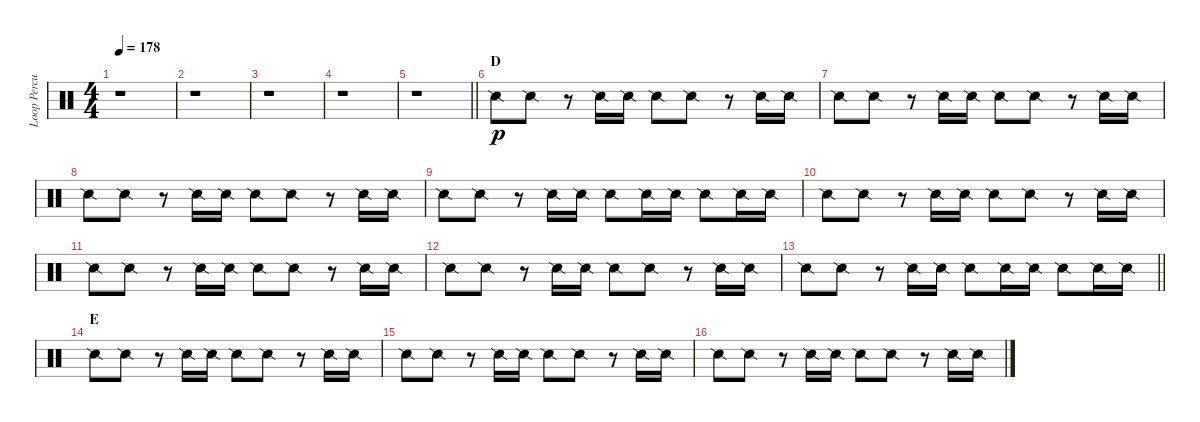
\track ("Loop Percussion" "Loop Percu") {instrument percussion}
\staff {score}
\articulation defaults
\ts (4 4)
\tempo 178
\clef neutral
\ks c
r.1{dy p} |
r.1 |
r.1 |
r.1 |
\barLineRight lightlight
r.1 |
\section ("" "D")
"Snare (side stick) 2".8 "Snare (side stick) 2".8 r.8 "Snare (side stick) 2".16 "Snare (side stick) 2".16 "Snare (side stick) 2".8 "Snare (side stick) 2".8 r.8 "Snare (side stick) 2".16 "Snare (side stick) 2".16 |
"Snare (side stick) 2".8 "Snare (side stick) 2".8 r.8 "Snare (side stick) 2".16 "Snare (side stick) 2".16 "Snare (side stick) 2".8 "Snare (side stick) 2".8 r.8 "Snare (side stick) 2".16 "Snare (side stick) 2".16 |
"Snare (side stick) 2".8 "Snare (side stick) 2".8 r.8 "Snare (side stick) 2".16 "Snare (side stick) 2".16 "Snare (side stick) 2".8 "Snare (side stick) 2".8 r.8 "Snare (side stick) 2".16 "Snare (side stick) 2".16 |
"Snare (side stick) 2".8 "Snare (side stick) 2".8 r.8 "Snare (side stick) 2".16 "Snare (side stick) 2".16 "Snare (side stick) 2".8 "Snare (side stick) 2".16 "Snare (side stick) 2".16 "Snare (side stick) 2".8 "Snare (side stick) 2".16 "Snare (side stick) 2".16 |
"Snare (side stick) 2".8 "Snare (side stick) 2".8 r.8 "Snare (side stick) 2".16 "Snare (side stick) 2".16 "Snare (side stick) 2".8 "Snare (side stick) 2".8 r.8 "Snare (side stick) 2".16 "Snare (side stick) 2".16 |
"Snare (side stick) 2".8 "Snare (side stick) 2".8 r.8 "Snare (side stick) 2".16 "Snare (side stick) 2".16 "Snare (side stick) 2".8 "Snare (side stick) 2".8 r.8 "Snare (side stick) 2".16 "Snare (side stick) 2".16 |
"Snare (side stick) 2".8 "Snare (side stick) 2".8 r.8 "Snare (side stick) 2".16 "Snare (side stick) 2".16 "Snare (side stick) 2".8 "Snare (side stick) 2".8 r.8 "Snare (side stick) 2".16 "Snare (side stick) 2".16 |
\barLineRight lightlight "Snare (side stick) 2".8 "Snare (side stick) 2".8
r.8 "Snare (side stick) 2".16 "Snare (side stick) 2".16 "Snare (side stick) 2".8 "Snare (side stick) 2".16 "Snare (side stick) 2".16 "Snare (side stick) 2".8 "Snare (side stick) 2".16 "Snare (side stick) 2".16 |
\section ("" "E")
"Snare (side stick) 2".8 "Snare (side stick) 2".8 r.8 "Snare (side stick) 2".16 "Snare (side stick) 2".16 "Snare (side stick) 2".8 "Snare (side stick) 2".8 r.8 "Snare (side stick) 2".16 "Snare (side stick) 2".16 |
"Snare (side stick) 2".8 "Snare (side stick) 2".8 r.8 "Snare (side stick) 2".16 "Snare (side stick) 2".16 "Snare (side stick) 2".8 "Snare (side stick) 2".8 r.8 "Snare (side stick) 2".16 "Snare (side stick) 2".16 |
"Snare (side stick) 2".8 "Snare (side stick) 2".8 r.8 "Snare (side stick) 2".16 "Snare (side stick) 2".16 "Snare (side stick) 2".8 "Snare (side stick) 2".8 r.8 "Snare (side stick) 2".16 "Snare (side stick) 2".16
